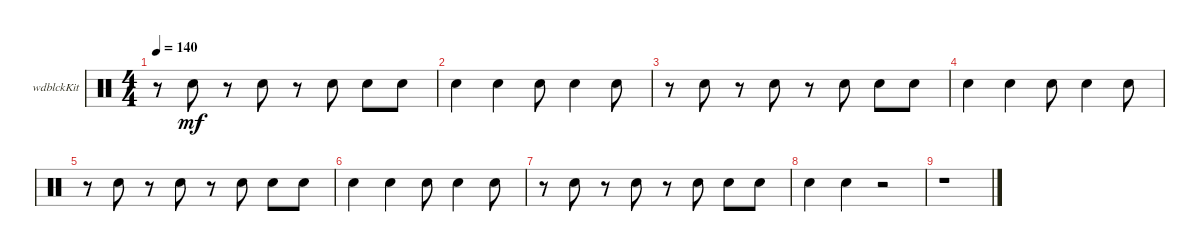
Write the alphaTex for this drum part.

\defaultSystemsLayout 4
\bracketExtendMode groupsimilarinstruments
\firstSystemTrackNameOrientation horizontal
\otherSystemsTrackNameOrientation horizontal
\track ("Woodblock" "wdblckKit") {instrument percussion}
\staff {score}
\articulation defaults
\ts (4 4)
\tempo 140
\clef neutral
\scale
0.275862
\ks c
r.8{dy mf} "Snare (hit) 2".8 r.8 "Snare (hit) 2".8 r.8 "Snare (hit) 2".8 "Snare (hit) 2".8 "Snare (hit) 2".8 |
\scale
0.224138 "Snare (hit) 2".4 "Snare (hit) 2".4 "Snare (hit) 2".8 "Snare (hit) 2".4 "Snare (hit) 2".8 |
\scale
0.275862 r.8 "Snare (hit) 2".8 r.8 "Snare (hit) 2".8 r.8 "Snare (hit) 2".8 "Snare (hit) 2".8 "Snare (hit) 2".8 |
\scale
0.224138 "Snare (hit) 2".4 "Snare (hit) 2".4 "Snare (hit) 2".8 "Snare (hit) 2".4 "Snare (hit) 2".8 |
\scale
0.28777 r.8 "Snare (hit) 2".8 r.8 "Snare (hit) 2".8 r.8 "Snare (hit) 2".8 "Snare (hit) 2".8 "Snare (hit) 2".8 |
\scale
0.233813 "Snare (hit) 2".4 "Snare (hit) 2".4 "Snare (hit) 2".8 "Snare (hit) 2".4 "Snare (hit) 2".8 |
\scale
0.28777 r.8 "Snare (hit) 2".8 r.8 "Snare (hit) 2".8 r.8 "Snare (hit) 2".8 "Snare (hit) 2".8 "Snare (hit) 2".8 |
\scale
0.190647 "Snare (hit) 2".4 "Snare (hit) 2".4 r.2 |
r.1
